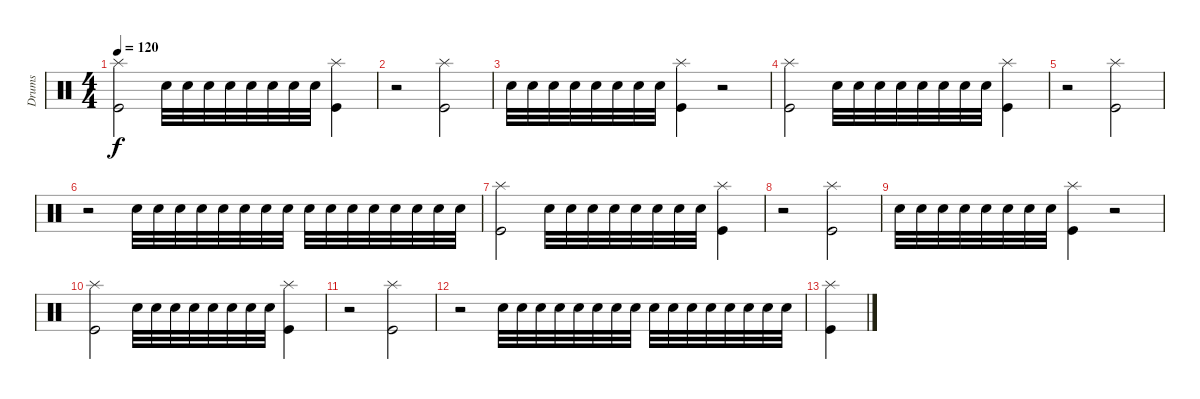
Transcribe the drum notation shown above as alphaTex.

\track ("Drums" "Drums") {instrument percussion}
\staff {score}
\articulation defaults
\ts (4 4)
\tempo 120
\clef neutral
\ks c
("Splash (hit)" "Kick (hit)").2{dy f} "Snare (hit) 2".32 "Snare (hit) 2".32 "Snare (hit) 2".32 "Snare (hit) 2".32 "Snare (hit) 2".32 "Snare (hit) 2".32 "Snare (hit) 2".32 "Snare (hit) 2".32 ("Splash (hit)" "Kick (hit)").4 |
r.2 ("Splash (hit)" "Kick (hit)").2 |
"Snare (hit) 2".32 "Snare (hit) 2".32 "Snare (hit) 2".32 "Snare (hit) 2".32 "Snare (hit) 2".32 "Snare (hit) 2".32 "Snare (hit) 2".32 "Snare (hit) 2".32 ("Splash (hit)" "Kick (hit)").4 r.2 |
("Splash (hit)" "Kick (hit)").2 "Snare (hit) 2".32 "Snare (hit) 2".32 "Snare (hit) 2".32 "Snare (hit) 2".32 "Snare (hit) 2".32 "Snare (hit) 2".32 "Snare (hit) 2".32 "Snare (hit) 2".32 ("Splash (hit)" "Kick (hit)").4 |
r.2 ("Splash (hit)" "Kick (hit)").2 |
r.2 "Snare (hit) 2".32 "Snare (hit) 2".32 "Snare (hit) 2".32 "Snare (hit) 2".32 "Snare (hit) 2".32 "Snare (hit) 2".32 "Snare (hit) 2".32 "Snare (hit) 2".32 "Snare (hit) 2".32 "Snare (hit) 2".32 "Snare (hit) 2".32 "Snare (hit) 2".32 "Snare (hit) 2".32 "Snare (hit) 2".32 "Snare (hit) 2".32 "Snare (hit) 2".32 |
("Splash (hit)" "Kick (hit)").2 "Snare (hit) 2".32 "Snare (hit) 2".32 "Snare (hit) 2".32 "Snare (hit) 2".32 "Snare (hit) 2".32 "Snare (hit) 2".32 "Snare (hit) 2".32 "Snare (hit) 2".32 ("Splash (hit)" "Kick (hit)").4 |
r.2 ("Splash (hit)" "Kick (hit)").2 |
"Snare (hit) 2".32 "Snare (hit) 2".32 "Snare (hit) 2".32 "Snare (hit) 2".32 "Snare (hit) 2".32 "Snare (hit) 2".32 "Snare (hit) 2".32 "Snare (hit) 2".32 ("Splash (hit)" "Kick (hit)").4 r.2 |
("Splash (hit)" "Kick (hit)").2 "Snare (hit) 2".32 "Snare (hit) 2".32 "Snare (hit) 2".32 "Snare (hit) 2".32 "Snare (hit) 2".32 "Snare (hit) 2".32 "Snare (hit) 2".32 "Snare (hit) 2".32 ("Splash (hit)" "Kick (hit)").4 |
r.2 ("Splash (hit)" "Kick (hit)").2 |
r.2 "Snare (hit) 2".32 "Snare (hit) 2".32 "Snare (hit) 2".32 "Snare (hit) 2".32 "Snare (hit) 2".32 "Snare (hit) 2".32 "Snare (hit) 2".32 "Snare (hit) 2".32 "Snare (hit) 2".32 "Snare (hit) 2".32 "Snare (hit) 2".32 "Snare (hit) 2".32 "Snare (hit) 2".32 "Snare (hit) 2".32 "Snare (hit) 2".32 "Snare (hit) 2".32 |
("Splash (hit)" "Kick (hit)").4
